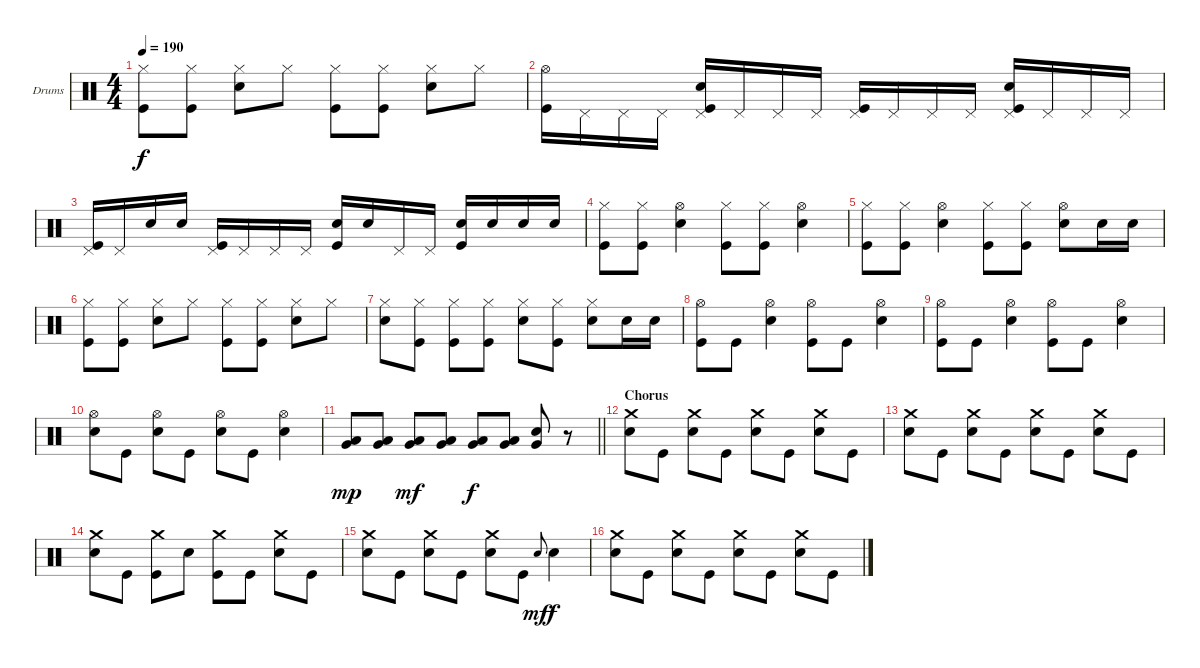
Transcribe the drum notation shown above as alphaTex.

\bracketExtendMode groupsimilarinstruments
\firstSystemTrackNameOrientation horizontal
\otherSystemsTrackNameOrientation horizontal
\track ("Drumkit" "Drums") {instrument percussion}
\staff {score}
\articulation defaults
\ts (4 4)
\tempo 190
\clef neutral
\ks c
("Hi-Hat (closed)" "Kick (hit)").8{dy f} ("Hi-Hat (closed)" "Kick (hit)").8 ("Hi-Hat (closed)" "Snare (hit) 2").8 "Hi-Hat (closed)".8 ("Hi-Hat (closed)" "Kick (hit)").8 ("Hi-Hat (closed)" "Kick (hit)").8 ("Hi-Hat (closed)" "Snare (hit) 2").8 "Hi-Hat (closed)".8 |
("Hi-Hat (open)" "Kick (hit)").16 "Pedal Hi-Hat (hit)".16 "Pedal Hi-Hat (hit)".16 "Pedal Hi-Hat (hit)".16 ("Pedal Hi-Hat (hit)" "Snare (hit) 2" "Kick (hit)").16 "Pedal Hi-Hat (hit)".16 "Pedal Hi-Hat (hit)".16 "Pedal Hi-Hat (hit)".16 ("Pedal Hi-Hat (hit)" "Kick (hit)").16 "Pedal Hi-Hat (hit)".16 "Pedal Hi-Hat (hit)".16 "Pedal Hi-Hat (hit)".16 ("Pedal Hi-Hat (hit)" "Snare (hit) 2" "Kick (hit)").16 "Pedal Hi-Hat (hit)".16 "Pedal Hi-Hat (hit)".16 "Pedal Hi-Hat (hit)".16 |
("Pedal Hi-Hat (hit)" "Kick (hit)").16 "Pedal Hi-Hat (hit)".16 "Snare (hit) 2".16 "Snare (hit) 2".16 ("Pedal Hi-Hat (hit)" "Kick (hit)").16 "Pedal Hi-Hat (hit)".16 "Pedal Hi-Hat (hit)".16 "Pedal Hi-Hat (hit)".16 ("Kick (hit)" "Snare (hit) 2").16 "Snare (hit) 2".16 "Pedal Hi-Hat (hit)".16 "Pedal Hi-Hat (hit)".16 ("Snare (hit) 2" "Kick (hit)").16 "Snare (hit) 2".16 "Snare (hit) 2".16 "Snare (hit) 2".16 |
("Hi-Hat (closed)" "Kick (hit)").8 ("Hi-Hat (closed)" "Kick (hit)").8 ("Hi-Hat (open)" "Snare (hit) 2").4 ("Hi-Hat (closed)" "Kick (hit)").8 ("Hi-Hat (closed)" "Kick (hit)").8 ("Hi-Hat (open)" "Snare (hit) 2").4 |
("Hi-Hat (closed)" "Kick (hit)").8 ("Hi-Hat (closed)" "Kick (hit)").8 ("Hi-Hat (open)" "Snare (hit) 2").4 ("Hi-Hat (closed)" "Kick (hit)").8 ("Hi-Hat (closed)" "Kick (hit)").8 ("Hi-Hat (open)" "Snare (hit) 2").8 "Snare (hit) 2".16 "Snare (hit) 2".16 |
("Hi-Hat (closed)" "Kick (hit)").8 ("Hi-Hat (closed)" "Kick (hit)").8 ("Hi-Hat (closed)" "Snare (hit) 2").8 "Hi-Hat (closed)".8 ("Hi-Hat (closed)" "Kick (hit)").8 ("Hi-Hat (closed)" "Kick (hit)").8 ("Hi-Hat (closed)" "Snare (hit) 2").8 "Hi-Hat (closed)".8 |
("Hi-Hat (closed)" "Snare (hit) 2").8 ("Hi-Hat (closed)" "Kick (hit)").8 ("Hi-Hat (closed)" "Kick (hit)").8 ("Hi-Hat (closed)" "Kick (hit)").8 ("Hi-Hat (closed)" "Snare (hit) 2").8 ("Hi-Hat (closed)" "Kick (hit)").8 ("Hi-Hat (closed)" "Snare (hit) 2").8 "Snare (hit) 2".16 "Snare (hit) 2".16 |
("Hi-Hat (open)" "Kick (hit)").8 "Kick (hit)".8 ("Hi-Hat (open)" "Snare (hit) 2").4 ("Hi-Hat (open)" "Kick (hit)").8 "Kick (hit)".8 ("Hi-Hat (open)" "Snare (hit) 2").4 |
("Hi-Hat (open)" "Kick (hit)").8 "Kick (hit)".8 ("Hi-Hat (open)" "Snare (hit) 2").4 ("Hi-Hat (open)" "Kick (hit)").8 "Kick (hit)".8 ("Hi-Hat (open)" "Snare (hit) 2").4 |
("Hi-Hat (open)" "Snare (hit) 2").8 "Kick (hit)".8 ("Hi-Hat (open)" "Snare (hit) 2").8 "Kick (hit)".8 ("Hi-Hat (open)" "Snare (hit) 2").8 "Kick (hit)".8 ("Hi-Hat (open)" "Snare (hit) 2").4 |
\barLineRight lightlight
("Low Tom (hit)" "Very Low Tom (hit)").8{dy mp} ("Low Tom (hit)" "Very Low Tom (hit)").8 ("Low Tom (hit)" "Very Low Tom (hit)").8{dy mf} ("Low Tom (hit)" "Very Low Tom (hit)").8 ("Low Tom (hit)" "Very Low Tom (hit)").8{dy f} ("Low Tom (hit)" "Very Low Tom (hit)").8 ("Snare (hit) 2" "Very Low Tom (hit)").8 r.8 |
\section ("" "Chorus ")
("Crash medium (hit)" "Snare (hit) 2").8 "Kick (hit)".8 ("Crash medium (hit)" "Snare (hit) 2").8 "Kick (hit)".8 ("Crash medium (hit)" "Snare (hit) 2").8 "Kick (hit)".8 ("Crash medium (hit)" "Snare (hit) 2").8 "Kick (hit)".8 |
("Crash medium (hit)" "Snare (hit) 2").8 "Kick (hit)".8 ("Crash medium (hit)" "Snare (hit) 2").8 "Kick (hit)".8 ("Crash medium (hit)" "Snare (hit) 2").8 "Kick (hit)".8 ("Crash medium (hit)" "Snare (hit) 2").8 "Kick (hit)".8 |
("Crash medium (hit)" "Snare (hit) 2").8 "Kick (hit)".8 ("Crash medium (hit)" "Kick (hit)").8 "Snare (hit) 2".8 ("Crash medium (hit)" "Kick (hit)").8 "Kick (hit)".8 ("Crash medium (hit)" "Snare (hit) 2").8 "Kick (hit)".8 |
("Crash medium (hit)" "Snare (hit) 2").8 "Kick (hit)".8 ("Crash medium (hit)" "Snare (hit) 2").8 "Kick (hit)".8 ("Crash medium (hit)" "Snare (hit) 2").8 "Kick (hit)".8 "Snare (hit) 2".8{gr onbeat dy mf} "Snare (hit) 2".4{dy f} |
("Crash medium (hit)" "Snare (hit) 2").8 "Kick (hit)".8 ("Crash medium (hit)" "Snare (hit) 2").8 "Kick (hit)".8 ("Crash medium (hit)" "Snare (hit) 2").8 "Kick (hit)".8 ("Crash medium (hit)" "Snare (hit) 2").8 "Kick (hit)".8
